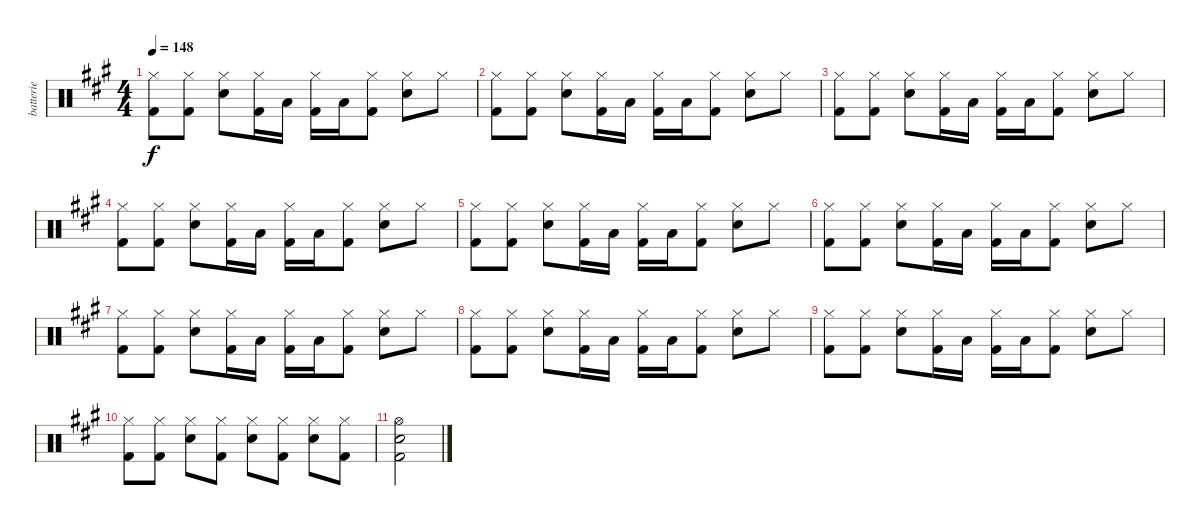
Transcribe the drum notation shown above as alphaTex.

\track ("batterie" "batterie") {instrument percussion}
\staff {score}
\articulation defaults
\ts (4 4)
\tempo 148
\clef neutral
\ks a
("Kick (hit) 2" "Hi-Hat (closed)").8{dy f} ("Kick (hit) 2" "Hi-Hat (closed)").8 ("Snare (hit) 2" "Hi-Hat (closed)").8 ("Kick (hit) 2" "Hi-Hat (closed)").16 "Low Tom (hit)".16 ("Kick (hit) 2" "Hi-Hat (closed)").16 "Low Tom (hit)".16 ("Kick (hit) 2" "Hi-Hat (closed)").8 ("Snare (hit) 2" "Hi-Hat (closed)").8 "Hi-Hat (closed)".8 |
("Kick (hit) 2" "Hi-Hat (closed)").8 ("Kick (hit) 2" "Hi-Hat (closed)").8 ("Snare (hit) 2" "Hi-Hat (closed)").8 ("Kick (hit) 2" "Hi-Hat (closed)").16 "Low Tom (hit)".16 ("Kick (hit) 2" "Hi-Hat (closed)").16 "Low Tom (hit)".16 ("Kick (hit) 2" "Hi-Hat (closed)").8 ("Snare (hit) 2" "Hi-Hat (closed)").8 "Hi-Hat (closed)".8 |
("Kick (hit) 2" "Hi-Hat (closed)").8 ("Kick (hit) 2" "Hi-Hat (closed)").8 ("Snare (hit) 2" "Hi-Hat (closed)").8 ("Kick (hit) 2" "Hi-Hat (closed)").16 "Low Tom (hit)".16 ("Kick (hit) 2" "Hi-Hat (closed)").16 "Low Tom (hit)".16 ("Kick (hit) 2" "Hi-Hat (closed)").8 ("Snare (hit) 2" "Hi-Hat (closed)").8 "Hi-Hat (closed)".8 |
("Kick (hit) 2" "Hi-Hat (closed)").8 ("Kick (hit) 2" "Hi-Hat (closed)").8 ("Snare (hit) 2" "Hi-Hat (closed)").8 ("Kick (hit) 2" "Hi-Hat (closed)").16 "Low Tom (hit)".16 ("Kick (hit) 2" "Hi-Hat (closed)").16 "Low Tom (hit)".16 ("Kick (hit) 2" "Hi-Hat (closed)").8 ("Snare (hit) 2" "Hi-Hat (closed)").8 "Hi-Hat (closed)".8 |
("Kick (hit) 2" "Hi-Hat (closed)").8 ("Kick (hit) 2" "Hi-Hat (closed)").8 ("Snare (hit) 2" "Hi-Hat (closed)").8 ("Kick (hit) 2" "Hi-Hat (closed)").16 "Low Tom (hit)".16 ("Kick (hit) 2" "Hi-Hat (closed)").16 "Low Tom (hit)".16 ("Kick (hit) 2" "Hi-Hat (closed)").8 ("Snare (hit) 2" "Hi-Hat (closed)").8 "Hi-Hat (closed)".8 |
("Kick (hit) 2" "Hi-Hat (closed)").8 ("Kick (hit) 2" "Hi-Hat (closed)").8 ("Snare (hit) 2" "Hi-Hat (closed)").8 ("Kick (hit) 2" "Hi-Hat (closed)").16 "Low Tom (hit)".16 ("Kick (hit) 2" "Hi-Hat (closed)").16 "Low Tom (hit)".16 ("Kick (hit) 2" "Hi-Hat (closed)").8 ("Snare (hit) 2" "Hi-Hat (closed)").8 "Hi-Hat (closed)".8 |
("Kick (hit) 2" "Hi-Hat (closed)").8 ("Kick (hit) 2" "Hi-Hat (closed)").8 ("Snare (hit) 2" "Hi-Hat (closed)").8 ("Kick (hit) 2" "Hi-Hat (closed)").16 "Low Tom (hit)".16 ("Kick (hit) 2" "Hi-Hat (closed)").16 "Low Tom (hit)".16 ("Kick (hit) 2" "Hi-Hat (closed)").8 ("Snare (hit) 2" "Hi-Hat (closed)").8 "Hi-Hat (closed)".8 |
("Kick (hit) 2" "Hi-Hat (closed)").8 ("Kick (hit) 2" "Hi-Hat (closed)").8 ("Snare (hit) 2" "Hi-Hat (closed)").8 ("Kick (hit) 2" "Hi-Hat (closed)").16 "Low Tom (hit)".16 ("Kick (hit) 2" "Hi-Hat (closed)").16 "Low Tom (hit)".16 ("Kick (hit) 2" "Hi-Hat (closed)").8 ("Snare (hit) 2" "Hi-Hat (closed)").8 "Hi-Hat (closed)".8 |
("Kick (hit) 2" "Hi-Hat (closed)").8 ("Kick (hit) 2" "Hi-Hat (closed)").8 ("Snare (hit) 2" "Hi-Hat (closed)").8 ("Kick (hit) 2" "Hi-Hat (closed)").16 "Low Tom (hit)".16 ("Kick (hit) 2" "Hi-Hat (closed)").16 "Low Tom (hit)".16 ("Kick (hit) 2" "Hi-Hat (closed)").8 ("Snare (hit) 2" "Hi-Hat (closed)").8 "Hi-Hat (closed)".8 |
("Kick (hit) 2" "Hi-Hat (closed)").8 ("Kick (hit) 2" "Hi-Hat (closed)").8 ("Snare (hit) 2" "Hi-Hat (closed)").8 ("Kick (hit) 2" "Hi-Hat (closed)").8 ("Snare (hit) 2" "Hi-Hat (closed)").8 ("Kick (hit) 2" "Hi-Hat (closed)").8 ("Snare (hit) 2" "Hi-Hat (closed)").8 ("Kick (hit) 2" "Hi-Hat (closed)").8 |
("Kick (hit) 2" "Snare (hit) 2" "Hi-Hat (open)").2
